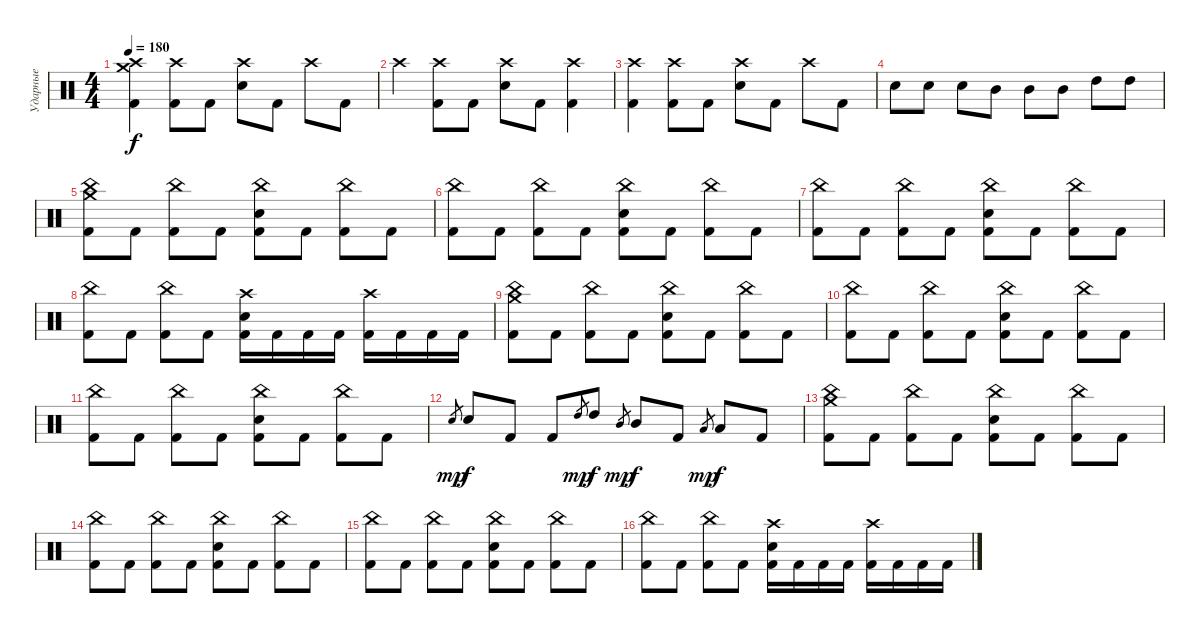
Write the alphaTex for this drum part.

\track ("Ударные" "Ударные") {instrument percussion}
\staff {score}
\articulation defaults
\ts (4 4)
\tempo 180
\clef neutral
\ks c
("Crash high (hit)" "Crash medium (hit)" "Kick (hit) 2").4{dy f} ("Crash high (hit)" "Kick (hit) 2").8 "Kick (hit) 2".8 ("Crash high (hit)" "Electric Snare (hit)").8 "Kick (hit) 2".8 "Crash high (hit)".8 "Kick (hit) 2".8 |
"Crash high (hit)".4 ("Crash high (hit)" "Kick (hit) 2").8 "Kick (hit) 2".8 ("Crash high (hit)" "Electric Snare (hit)").8 "Kick (hit) 2".8 ("Crash high (hit)" "Kick (hit) 2").4 |
("Crash high (hit)" "Kick (hit) 2").4 ("Crash high (hit)" "Kick (hit) 2").8 "Kick (hit) 2".8 ("Crash high (hit)" "Electric Snare (hit)").8 "Kick (hit) 2".8 "Crash high (hit)".8 "Kick (hit) 2".8 |
"Electric Snare (hit)".8 "Electric Snare (hit)".8 "Electric Snare (hit)".8 "Mid Tom (hit)".8 "Mid Tom (hit)".8 "Mid Tom (hit)".8 "High Tom (hit)".8 "High Tom (hit)".8 |
("China (hit)" "Crash medium (hit)" "Kick (hit) 2").8 "Kick (hit) 2".8 ("China (hit)" "Kick (hit) 2").8 "Kick (hit) 2".8 ("China (hit)" "Electric Snare (hit)" "Kick (hit) 2").8 "Kick (hit) 2".8 ("China (hit)" "Kick (hit) 2").8 "Kick (hit) 2".8 |
("China (hit)" "Kick (hit) 2").8 "Kick (hit) 2".8 ("China (hit)" "Kick (hit) 2").8 "Kick (hit) 2".8 ("China (hit)" "Electric Snare (hit)" "Kick (hit) 2").8 "Kick (hit) 2".8 ("China (hit)" "Kick (hit) 2").8 "Kick (hit) 2".8 |
("China (hit)" "Kick (hit) 2").8 "Kick (hit) 2".8 ("China (hit)" "Kick (hit) 2").8 "Kick (hit) 2".8 ("China (hit)" "Electric Snare (hit)" "Kick (hit) 2").8 "Kick (hit) 2".8 ("China (hit)" "Kick (hit) 2").8 "Kick (hit) 2".8 |
("China (hit)" "Kick (hit) 2").8 "Kick (hit) 2".8 ("China (hit)" "Kick (hit) 2").8 "Kick (hit) 2".8 ("Crash high (hit)" "Electric Snare (hit)" "Kick (hit) 2").16 "Kick (hit) 2".16 "Kick (hit) 2".16 "Kick (hit) 2".16 ("Crash high (hit)" "Kick (hit) 2").16 "Kick (hit) 2".16 "Kick (hit) 2".16 "Kick (hit) 2".16 |
("China (hit)" "Crash medium (hit)" "Kick (hit) 2").8 "Kick (hit) 2".8 ("China (hit)" "Kick (hit) 2").8 "Kick (hit) 2".8 ("China (hit)" "Electric Snare (hit)" "Kick (hit) 2").8 "Kick (hit) 2".8 ("China (hit)" "Kick (hit) 2").8 "Kick (hit) 2".8 |
("China (hit)" "Kick (hit) 2").8 "Kick (hit) 2".8 ("China (hit)" "Kick (hit) 2").8 "Kick (hit) 2".8 ("China (hit)" "Electric Snare (hit)" "Kick (hit) 2").8 "Kick (hit) 2".8 ("China (hit)" "Kick (hit) 2").8 "Kick (hit) 2".8 |
("China (hit)" "Kick (hit) 2").8 "Kick (hit) 2".8 ("China (hit)" "Kick (hit) 2").8 "Kick (hit) 2".8 ("China (hit)" "Electric Snare (hit)" "Kick (hit) 2").8 "Kick (hit) 2".8 ("China (hit)" "Kick (hit) 2").8 "Kick (hit) 2".8 |
"Electric Snare (hit)".8{gr dy mp} "Electric Snare (hit)".8{dy f} "Kick (hit) 2".8 "Kick (hit) 2".8 "High Tom (hit)".8{gr dy mp} "High Tom (hit)".8{dy f} "Mid Tom (hit)".8{gr dy mp} "Mid Tom (hit)".8{dy f} "Kick (hit) 2".8 "Low Tom (hit)".8{gr dy mp} "Low Tom (hit)".8{dy f} "Kick (hit) 2".8 |
("China (hit)" "Crash medium (hit)" "Kick (hit) 2").8 "Kick (hit) 2".8 ("China (hit)" "Kick (hit) 2").8 "Kick (hit) 2".8 ("China (hit)" "Electric Snare (hit)" "Kick (hit) 2").8 "Kick (hit) 2".8 ("China (hit)" "Kick (hit) 2").8 "Kick (hit) 2".8 |
("China (hit)" "Kick (hit) 2").8 "Kick (hit) 2".8 ("China (hit)" "Kick (hit) 2").8 "Kick (hit) 2".8 ("China (hit)" "Electric Snare (hit)" "Kick (hit) 2").8 "Kick (hit) 2".8 ("China (hit)" "Kick (hit) 2").8 "Kick (hit) 2".8 |
("China (hit)" "Kick (hit) 2").8 "Kick (hit) 2".8 ("China (hit)" "Kick (hit) 2").8 "Kick (hit) 2".8 ("China (hit)" "Electric Snare (hit)" "Kick (hit) 2").8 "Kick (hit) 2".8 ("China (hit)" "Kick (hit) 2").8 "Kick (hit) 2".8 |
("China (hit)" "Kick (hit) 2").8 "Kick (hit) 2".8 ("China (hit)" "Kick (hit) 2").8 "Kick (hit) 2".8 ("Crash high (hit)" "Electric Snare (hit)" "Kick (hit) 2").16 "Kick (hit) 2".16 "Kick (hit) 2".16 "Kick (hit) 2".16 ("Crash high (hit)" "Kick (hit) 2").16 "Kick (hit) 2".16 "Kick (hit) 2".16 "Kick (hit) 2".16
